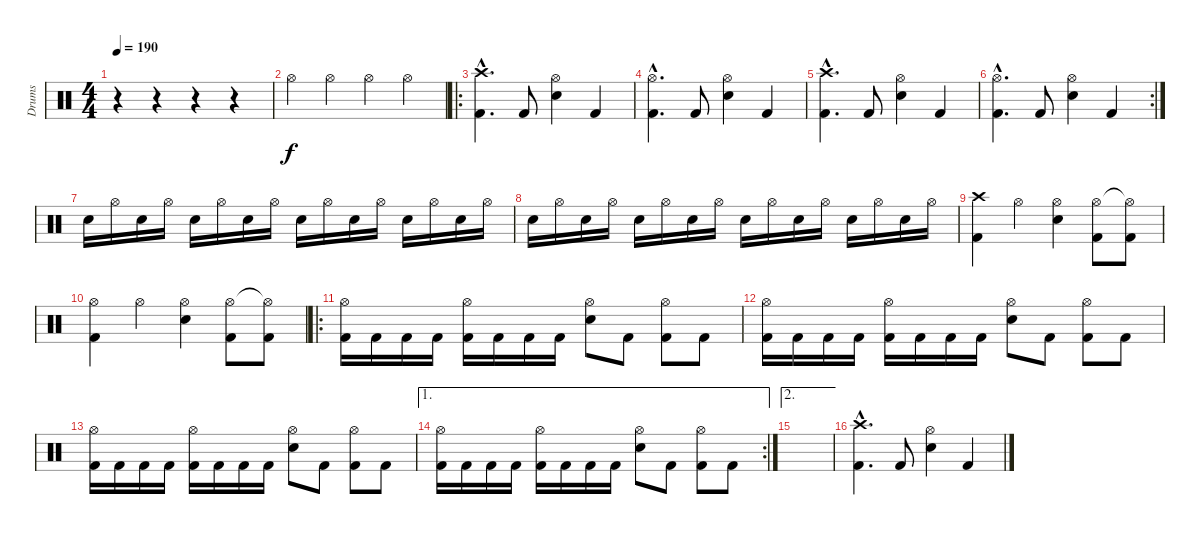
\track ("Drums" "Drums") {instrument percussion}
\staff {score}
\articulation defaults
\ts (4 4)
\tempo 190
\clef neutral
\ks c
r.4{dy f} r.4 r.4 r.4 |
"Hi-Hat (open)".4 "Hi-Hat (open)".4 "Hi-Hat (open)".4 "Hi-Hat (open)".4 |
\ro
("Crash high (hit)"{hac} "Kick (hit) 2"{hac}).4{d} "Kick (hit) 2".8 ("Electric Snare (hit)" "Hi-Hat (open)").4 "Kick (hit) 2".4 |
("Hi-Hat (open)"{hac} "Kick (hit) 2"{hac}).4{d} "Kick (hit) 2".8 ("Electric Snare (hit)" "Hi-Hat (open)").4 "Kick (hit) 2".4 |
("Crash high (hit)"{hac} "Kick (hit) 2"{hac}).4{d} "Kick (hit) 2".8 ("Electric Snare (hit)" "Hi-Hat (open)").4 "Kick (hit) 2".4 |
\rc 2
("Hi-Hat (open)"{hac} "Kick (hit) 2"{hac}).4{d} "Kick (hit) 2".8 ("Electric Snare (hit)" "Hi-Hat (open)").4 "Kick (hit) 2".4 |
"Electric Snare (hit)".16 "Hi-Hat (open)".16 "Electric Snare (hit)".16 "Hi-Hat (open)".16 "Electric Snare (hit)".16 "Hi-Hat (open)".16 "Electric Snare (hit)".16 "Hi-Hat (open)".16 "Electric Snare (hit)".16 "Hi-Hat (open)".16 "Electric Snare (hit)".16 "Hi-Hat (open)".16 "Electric Snare (hit)".16 "Hi-Hat (open)".16 "Electric Snare (hit)".16 "Hi-Hat (open)".16 |
"Electric Snare (hit)".16 "Hi-Hat (open)".16 "Electric Snare (hit)".16 "Hi-Hat (open)".16 "Electric Snare (hit)".16 "Hi-Hat (open)".16 "Electric Snare (hit)".16 "Hi-Hat (open)".16 "Electric Snare (hit)".16 "Hi-Hat (open)".16 "Electric Snare (hit)".16 "Hi-Hat (open)".16 "Electric Snare (hit)".16 "Hi-Hat (open)".16 "Electric Snare (hit)".16 "Hi-Hat (open)".16 |
("Crash high (hit)" "Kick (hit) 2").4 "Hi-Hat (open)".4 ("Hi-Hat (open)" "Electric Snare (hit)").4 ("Hi-Hat (open)" "Kick (hit) 2").8 ("Hi-Hat (open)"{t} "Kick (hit) 2").8 |
("Hi-Hat (open)" "Kick (hit) 2").4 "Hi-Hat (open)".4 ("Hi-Hat (open)" "Electric Snare (hit)").4 ("Hi-Hat (open)" "Kick (hit) 2").8 ("Hi-Hat (open)"{t} "Kick (hit) 2").8 |
\ro
("Kick (hit) 2" "Hi-Hat (open)").16 "Kick (hit) 2".16 "Kick (hit) 2".16 "Kick (hit) 2".16 ("Kick (hit) 2" "Hi-Hat (open)").16 "Kick (hit) 2".16 "Kick (hit) 2".16 "Kick (hit) 2".16 ("Electric Snare (hit)" "Hi-Hat (open)").8 "Kick (hit) 2".8 ("Kick (hit) 2" "Hi-Hat (open)").8 "Kick (hit) 2".8 |
("Kick (hit) 2" "Hi-Hat (open)").16 "Kick (hit) 2".16 "Kick (hit) 2".16 "Kick (hit) 2".16 ("Kick (hit) 2" "Hi-Hat (open)").16 "Kick (hit) 2".16 "Kick (hit) 2".16 "Kick (hit) 2".16 ("Electric Snare (hit)" "Hi-Hat (open)").8 "Kick (hit) 2".8 ("Kick (hit) 2" "Hi-Hat (open)").8 "Kick (hit) 2".8 |
("Kick (hit) 2" "Hi-Hat (open)").16 "Kick (hit) 2".16 "Kick (hit) 2".16 "Kick (hit) 2".16 ("Kick (hit) 2" "Hi-Hat (open)").16 "Kick (hit) 2".16 "Kick (hit) 2".16 "Kick (hit) 2".16 ("Electric Snare (hit)" "Hi-Hat (open)").8 "Kick (hit) 2".8 ("Kick (hit) 2" "Hi-Hat (open)").8 "Kick (hit) 2".8 |
\ae 1
\rc 2
("Kick (hit) 2" "Hi-Hat (open)").16 "Kick (hit) 2".16 "Kick (hit) 2".16 "Kick (hit) 2".16 ("Kick (hit) 2" "Hi-Hat (open)").16 "Kick (hit) 2".16 "Kick (hit) 2".16 "Kick (hit) 2".16 ("Electric Snare (hit)" "Hi-Hat (open)").8 "Kick (hit) 2".8 ("Kick (hit) 2" "Hi-Hat (open)").8 "Kick (hit) 2".8 |
\ae 2
|
("Crash high (hit)"{hac} "Kick (hit) 2"{hac}).4{d} "Kick (hit) 2".8 ("Electric Snare (hit)" "Hi-Hat (open)").4 "Kick (hit) 2".4
